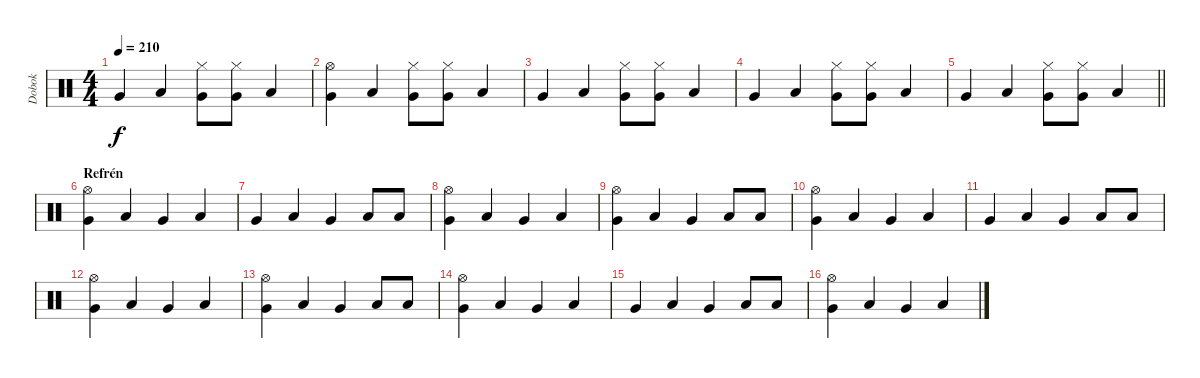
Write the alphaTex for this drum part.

\track ("Dobok" "Dobok") {instrument percussion}
\staff {score}
\articulation defaults
\ts (4 4)
\tempo 210
\clef neutral
\ks c "Very Low Tom (hit)".4{dy f} "Low Tom (hit)".4
("Hi-Hat (closed)" "Very Low Tom (hit)").8 ("Hi-Hat (closed)" "Very Low Tom (hit)").8 "Low Tom (hit)".4 |
("Hi-Hat (open)" "Very Low Tom (hit)").4 "Low Tom (hit)".4 ("Hi-Hat (closed)" "Very Low Tom (hit)").8 ("Hi-Hat (closed)" "Very Low Tom (hit)").8 "Low Tom (hit)".4 |
"Very Low Tom (hit)".4 "Low Tom (hit)".4 ("Hi-Hat (closed)" "Very Low Tom (hit)").8 ("Hi-Hat (closed)" "Very Low Tom (hit)").8 "Low Tom (hit)".4 |
"Very Low Tom (hit)".4 "Low Tom (hit)".4 ("Hi-Hat (closed)" "Very Low Tom (hit)").8 ("Hi-Hat (closed)" "Very Low Tom (hit)").8 "Low Tom (hit)".4 |
\barLineRight lightlight "Very Low Tom (hit)".4 "Low Tom (hit)".4
("Hi-Hat (closed)" "Very Low Tom (hit)").8 ("Hi-Hat (closed)" "Very Low Tom (hit)").8 "Low Tom (hit)".4 |
\section ("" "Refrén")
("Hi-Hat (open)" "Very Low Tom (hit)").4 "Low Tom (hit)".4 "Very Low Tom (hit)".4 "Low Tom (hit)".4 |
"Very Low Tom (hit)".4 "Low Tom (hit)".4 "Very Low Tom (hit)".4 "Low Tom (hit)".8 "Low Tom (hit)".8 |
("Hi-Hat (open)" "Very Low Tom (hit)").4 "Low Tom (hit)".4 "Very Low Tom (hit)".4 "Low Tom (hit)".4 |
("Hi-Hat (open)" "Very Low Tom (hit)").4 "Low Tom (hit)".4 "Very Low Tom (hit)".4 "Low Tom (hit)".8 "Low Tom (hit)".8 |
("Hi-Hat (open)" "Very Low Tom (hit)").4 "Low Tom (hit)".4 "Very Low Tom (hit)".4 "Low Tom (hit)".4 |
"Very Low Tom (hit)".4 "Low Tom (hit)".4 "Very Low Tom (hit)".4 "Low Tom (hit)".8 "Low Tom (hit)".8 |
("Hi-Hat (open)" "Very Low Tom (hit)").4 "Low Tom (hit)".4 "Very Low Tom (hit)".4 "Low Tom (hit)".4 |
("Hi-Hat (open)" "Very Low Tom (hit)").4 "Low Tom (hit)".4 "Very Low Tom (hit)".4 "Low Tom (hit)".8 "Low Tom (hit)".8 |
("Hi-Hat (open)" "Very Low Tom (hit)").4 "Low Tom (hit)".4 "Very Low Tom (hit)".4 "Low Tom (hit)".4 |
"Very Low Tom (hit)".4 "Low Tom (hit)".4 "Very Low Tom (hit)".4 "Low Tom (hit)".8 "Low Tom (hit)".8 |
("Hi-Hat (open)" "Very Low Tom (hit)").4 "Low Tom (hit)".4 "Very Low Tom (hit)".4 "Low Tom (hit)".4
